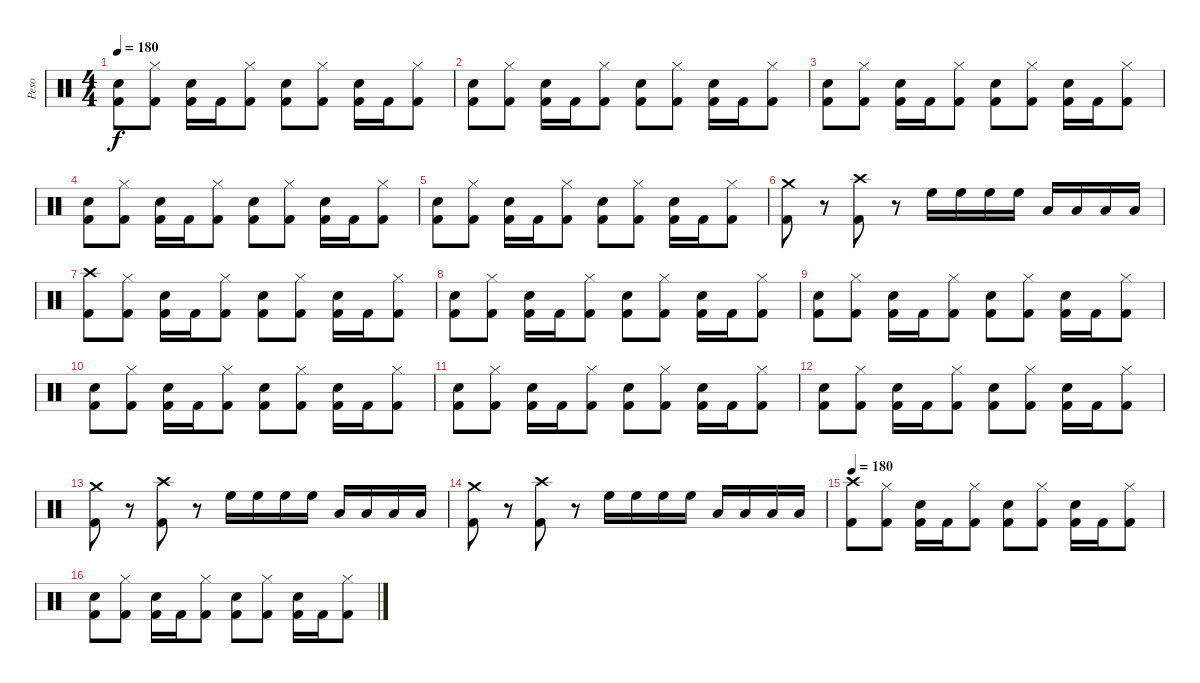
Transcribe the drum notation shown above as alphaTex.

\track ("Peso" "Peso") {instrument percussion}
\staff {score}
\articulation defaults
\ts (4 4)
\tempo 180
\clef neutral
\ks c
("Snare (hit) 2" "Kick (hit) 2").8{dy f} ("Hi-Hat (closed)" "Kick (hit) 2").8 ("Snare (hit) 2" "Kick (hit) 2").16 "Kick (hit) 2".16 ("Hi-Hat (closed)" "Kick (hit) 2").8 ("Snare (hit) 2" "Kick (hit) 2").8 ("Hi-Hat (closed)" "Kick (hit) 2").8 ("Snare (hit) 2" "Kick (hit) 2").16 "Kick (hit) 2".16 ("Hi-Hat (closed)" "Kick (hit) 2").8 |
("Snare (hit) 2" "Kick (hit) 2").8 ("Hi-Hat (closed)" "Kick (hit) 2").8 ("Snare (hit) 2" "Kick (hit) 2").16 "Kick (hit) 2".16 ("Hi-Hat (closed)" "Kick (hit) 2").8 ("Snare (hit) 2" "Kick (hit) 2").8 ("Hi-Hat (closed)" "Kick (hit) 2").8 ("Snare (hit) 2" "Kick (hit) 2").16 "Kick (hit) 2".16 ("Hi-Hat (closed)" "Kick (hit) 2").8 |
("Snare (hit) 2" "Kick (hit) 2").8 ("Hi-Hat (closed)" "Kick (hit) 2").8 ("Snare (hit) 2" "Kick (hit) 2").16 "Kick (hit) 2".16 ("Hi-Hat (closed)" "Kick (hit) 2").8 ("Snare (hit) 2" "Kick (hit) 2").8 ("Hi-Hat (closed)" "Kick (hit) 2").8 ("Snare (hit) 2" "Kick (hit) 2").16 "Kick (hit) 2".16 ("Hi-Hat (closed)" "Kick (hit) 2").8 |
("Snare (hit) 2" "Kick (hit) 2").8 ("Hi-Hat (closed)" "Kick (hit) 2").8 ("Snare (hit) 2" "Kick (hit) 2").16 "Kick (hit) 2".16 ("Hi-Hat (closed)" "Kick (hit) 2").8 ("Snare (hit) 2" "Kick (hit) 2").8 ("Hi-Hat (closed)" "Kick (hit) 2").8 ("Snare (hit) 2" "Kick (hit) 2").16 "Kick (hit) 2".16 ("Hi-Hat (closed)" "Kick (hit) 2").8 |
("Snare (hit) 2" "Kick (hit) 2").8 ("Hi-Hat (closed)" "Kick (hit) 2").8 ("Snare (hit) 2" "Kick (hit) 2").16 "Kick (hit) 2".16 ("Hi-Hat (closed)" "Kick (hit) 2").8 ("Snare (hit) 2" "Kick (hit) 2").8 ("Hi-Hat (closed)" "Kick (hit) 2").8 ("Snare (hit) 2" "Kick (hit) 2").16 "Kick (hit) 2".16 ("Hi-Hat (closed)" "Kick (hit) 2").8 |
("Crash medium (hit)" "Kick (hit) 2").8 r.8 ("Crash high (hit)" "Kick (hit) 2").8 r.8 "High Floor Tom (hit)".16 "High Floor Tom (hit)".16 "High Floor Tom (hit)".16 "High Floor Tom (hit)".16 "Low Floor Tom (hit)".16 "Low Floor Tom (hit)".16 "Low Floor Tom (hit)".16 "Low Floor Tom (hit)".16 |
("Crash high (hit)" "Kick (hit) 2").8 ("Hi-Hat (closed)" "Kick (hit) 2").8 ("Snare (hit) 2" "Kick (hit) 2").16 "Kick (hit) 2".16 ("Hi-Hat (closed)" "Kick (hit) 2").8 ("Snare (hit) 2" "Kick (hit) 2").8 ("Hi-Hat (closed)" "Kick (hit) 2").8 ("Snare (hit) 2" "Kick (hit) 2").16 "Kick (hit) 2".16 ("Hi-Hat (closed)" "Kick (hit) 2").8 |
("Snare (hit) 2" "Kick (hit) 2").8 ("Hi-Hat (closed)" "Kick (hit) 2").8 ("Snare (hit) 2" "Kick (hit) 2").16 "Kick (hit) 2".16 ("Hi-Hat (closed)" "Kick (hit) 2").8 ("Snare (hit) 2" "Kick (hit) 2").8 ("Hi-Hat (closed)" "Kick (hit) 2").8 ("Snare (hit) 2" "Kick (hit) 2").16 "Kick (hit) 2".16 ("Hi-Hat (closed)" "Kick (hit) 2").8 |
("Snare (hit) 2" "Kick (hit) 2").8 ("Hi-Hat (closed)" "Kick (hit) 2").8 ("Snare (hit) 2" "Kick (hit) 2").16 "Kick (hit) 2".16 ("Hi-Hat (closed)" "Kick (hit) 2").8 ("Snare (hit) 2" "Kick (hit) 2").8 ("Hi-Hat (closed)" "Kick (hit) 2").8 ("Snare (hit) 2" "Kick (hit) 2").16 "Kick (hit) 2".16 ("Hi-Hat (closed)" "Kick (hit) 2").8 |
("Snare (hit) 2" "Kick (hit) 2").8 ("Hi-Hat (closed)" "Kick (hit) 2").8 ("Snare (hit) 2" "Kick (hit) 2").16 "Kick (hit) 2".16 ("Hi-Hat (closed)" "Kick (hit) 2").8 ("Snare (hit) 2" "Kick (hit) 2").8 ("Hi-Hat (closed)" "Kick (hit) 2").8 ("Snare (hit) 2" "Kick (hit) 2").16 "Kick (hit) 2".16 ("Hi-Hat (closed)" "Kick (hit) 2").8 |
("Snare (hit) 2" "Kick (hit) 2").8 ("Hi-Hat (closed)" "Kick (hit) 2").8 ("Snare (hit) 2" "Kick (hit) 2").16 "Kick (hit) 2".16 ("Hi-Hat (closed)" "Kick (hit) 2").8 ("Snare (hit) 2" "Kick (hit) 2").8 ("Hi-Hat (closed)" "Kick (hit) 2").8 ("Snare (hit) 2" "Kick (hit) 2").16 "Kick (hit) 2".16 ("Hi-Hat (closed)" "Kick (hit) 2").8 |
("Snare (hit) 2" "Kick (hit) 2").8 ("Hi-Hat (closed)" "Kick (hit) 2").8 ("Snare (hit) 2" "Kick (hit) 2").16 "Kick (hit) 2".16 ("Hi-Hat (closed)" "Kick (hit) 2").8 ("Snare (hit) 2" "Kick (hit) 2").8 ("Hi-Hat (closed)" "Kick (hit) 2").8 ("Snare (hit) 2" "Kick (hit) 2").16 "Kick (hit) 2".16 ("Hi-Hat (closed)" "Kick (hit) 2").8 |
("Crash medium (hit)" "Kick (hit) 2").8 r.8 ("Crash high (hit)" "Kick (hit) 2").8 r.8 "High Floor Tom (hit)".16 "High Floor Tom (hit)".16 "High Floor Tom (hit)".16 "High Floor Tom (hit)".16 "Low Floor Tom (hit)".16 "Low Floor Tom (hit)".16 "Low Floor Tom (hit)".16 "Low Floor Tom (hit)".16 |
("Crash medium (hit)" "Kick (hit) 2").8 r.8 ("Crash high (hit)" "Kick (hit) 2").8 r.8 "High Floor Tom (hit)".16 "High Floor Tom (hit)".16 "High Floor Tom (hit)".16 "High Floor Tom (hit)".16 "Low Floor Tom (hit)".16 "Low Floor Tom (hit)".16 "Low Floor Tom (hit)".16 "Low Floor Tom (hit)".16 |
\tempo 180
("Crash high (hit)" "Kick (hit) 2").8 ("Hi-Hat (closed)" "Kick (hit) 2").8 ("Snare (hit) 2" "Kick (hit) 2").16 "Kick (hit) 2".16 ("Hi-Hat (closed)" "Kick (hit) 2").8 ("Snare (hit) 2" "Kick (hit) 2").8 ("Hi-Hat (closed)" "Kick (hit) 2").8 ("Snare (hit) 2" "Kick (hit) 2").16 "Kick (hit) 2".16 ("Hi-Hat (closed)" "Kick (hit) 2").8 |
("Snare (hit) 2" "Kick (hit) 2").8 ("Hi-Hat (closed)" "Kick (hit) 2").8 ("Snare (hit) 2" "Kick (hit) 2").16 "Kick (hit) 2".16 ("Hi-Hat (closed)" "Kick (hit) 2").8 ("Snare (hit) 2" "Kick (hit) 2").8 ("Hi-Hat (closed)" "Kick (hit) 2").8 ("Snare (hit) 2" "Kick (hit) 2").16 "Kick (hit) 2".16 ("Hi-Hat (closed)" "Kick (hit) 2").8
